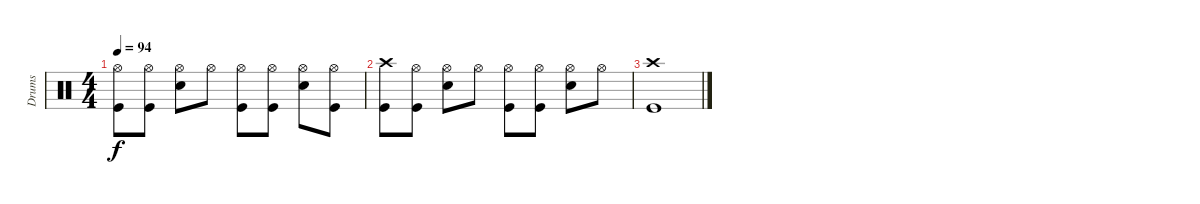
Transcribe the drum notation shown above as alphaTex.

\track ("Drums" "Drums") {instrument percussion}
\staff {score}
\articulation defaults
\ts (4 4)
\tempo 94
\clef neutral
\ks c
("Hi-Hat (open)" "Kick (hit)").8{dy f} ("Hi-Hat (open)" "Kick (hit)").8 ("Hi-Hat (open)" "Snare (hit) 2").8 "Hi-Hat (open)".8 ("Hi-Hat (open)" "Kick (hit)").8 ("Hi-Hat (open)" "Kick (hit)").8 ("Hi-Hat (open)" "Snare (hit) 2").8 ("Hi-Hat (open)" "Kick (hit)").8 |
("Crash high (hit)" "Kick (hit)").8 ("Hi-Hat (open)" "Kick (hit)").8 ("Hi-Hat (open)" "Snare (hit) 2").8 "Hi-Hat (open)".8 ("Hi-Hat (open)" "Kick (hit)").8 ("Hi-Hat (open)" "Kick (hit)").8 ("Hi-Hat (open)" "Snare (hit) 2").8 "Hi-Hat (open)".8 |
("Crash high (hit)" "Kick (hit)").1
